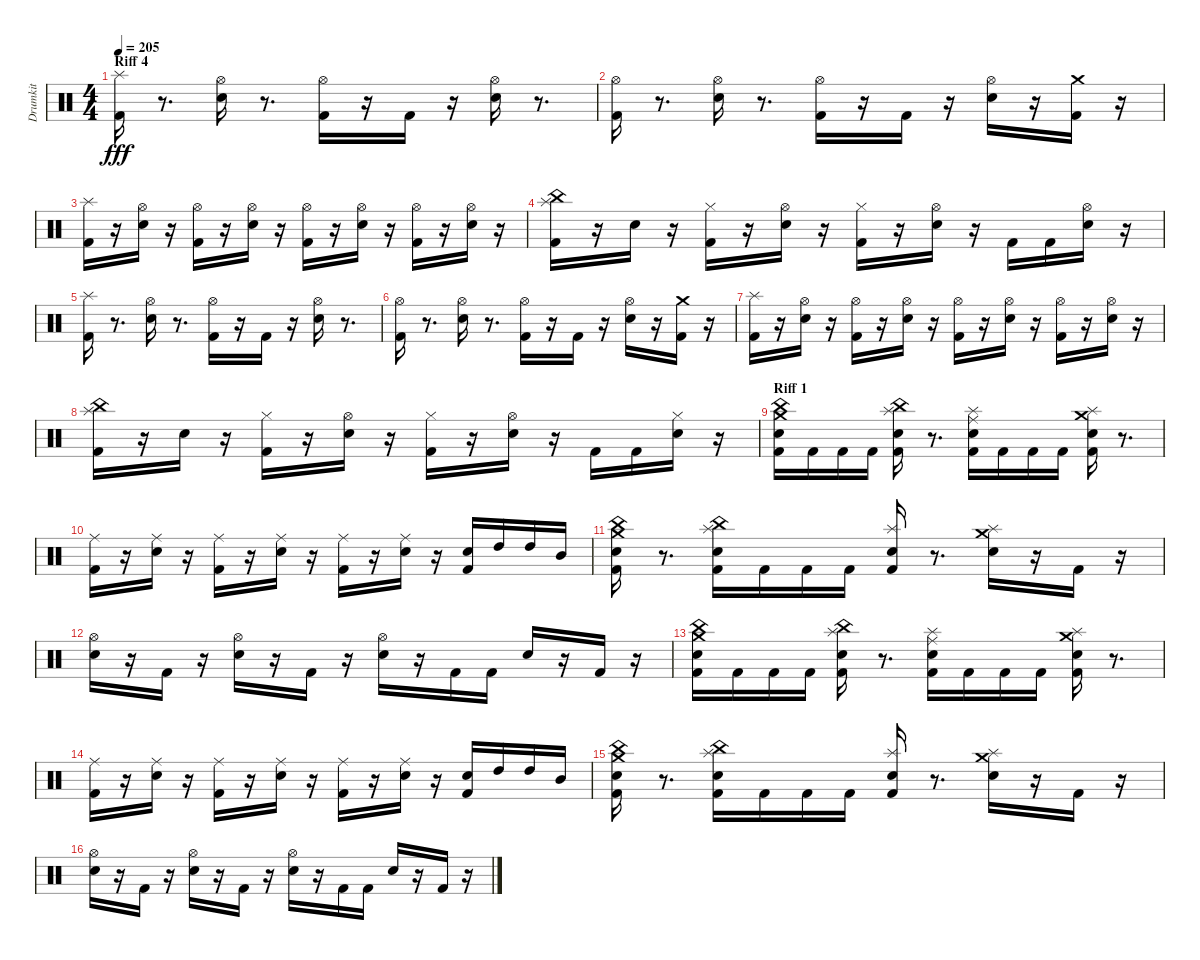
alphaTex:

\track ("Drumkit" "Drumkit") {instrument percussion}
\staff {score}
\articulation defaults
\ts (4 4)
\section ("" "Riff 4")
\tempo 205
\clef neutral
\ks c
("Kick (hit) 2" "Splash (hit)").16{dy fff} r.8{d} ("Snare (hit) 2" "Hi-Hat (open)").16 r.8{d} ("Kick (hit) 2" "Hi-Hat (open)").16 r.16 "Kick (hit) 2".16 r.16 ("Snare (hit) 2" "Hi-Hat (open)").16 r.8{d} |
("Kick (hit) 2" "Hi-Hat (open)").16 r.8{d} ("Snare (hit) 2" "Hi-Hat (open)").16 r.8{d} ("Kick (hit) 2" "Hi-Hat (open)").16 r.16 "Kick (hit) 2".16 r.16 ("Snare (hit) 2" "Hi-Hat (open)").16 r.16 ("Kick (hit) 2" "Crash medium (hit)").16 r.16 |
("Kick (hit) 2" "Splash (hit)").16 r.16 ("Snare (hit) 2" "Hi-Hat (open)").16 r.16 ("Kick (hit) 2" "Hi-Hat (open)").16 r.16 ("Snare (hit) 2" "Hi-Hat (open)").16 r.16 ("Kick (hit) 2" "Hi-Hat (open)").16 r.16 ("Snare (hit) 2" "Hi-Hat (open)").16 r.16 ("Kick (hit) 2" "Hi-Hat (open)").16 r.16 ("Snare (hit) 2" "Hi-Hat (open)").16 r.16 |
("Kick (hit) 2" "Splash (hit)" "China (hit)").16 r.16 "Snare (hit) 2".16 r.16 ("Kick (hit) 2" "Hi-Hat (closed)").16 r.16 ("Snare (hit) 2" "Hi-Hat (open)").16 r.16 ("Kick (hit) 2" "Hi-Hat (closed)").16 r.16 ("Snare (hit) 2" "Hi-Hat (open)").16 r.16 "Kick (hit) 2".16 "Kick (hit) 2".16 ("Snare (hit) 2" "Hi-Hat (open)").16 r.16 |
("Kick (hit) 2" "Splash (hit)").16 r.8{d} ("Snare (hit) 2" "Hi-Hat (open)").16 r.8{d} ("Kick (hit) 2" "Hi-Hat (open)").16 r.16 "Kick (hit) 2".16 r.16 ("Snare (hit) 2" "Hi-Hat (open)").16 r.8{d} |
("Kick (hit) 2" "Hi-Hat (open)").16 r.8{d} ("Snare (hit) 2" "Hi-Hat (open)").16 r.8{d} ("Kick (hit) 2" "Hi-Hat (open)").16 r.16 "Kick (hit) 2".16 r.16 ("Snare (hit) 2" "Hi-Hat (open)").16 r.16 ("Kick (hit) 2" "Crash medium (hit)").16 r.16 |
("Kick (hit) 2" "Splash (hit)").16 r.16 ("Snare (hit) 2" "Hi-Hat (open)").16 r.16 ("Kick (hit) 2" "Hi-Hat (open)").16 r.16 ("Snare (hit) 2" "Hi-Hat (open)").16 r.16 ("Kick (hit) 2" "Hi-Hat (open)").16 r.16 ("Snare (hit) 2" "Hi-Hat (open)").16 r.16 ("Kick (hit) 2" "Hi-Hat (open)").16 r.16 ("Snare (hit) 2" "Hi-Hat (open)").16 r.16 |
("Kick (hit) 2" "Splash (hit)" "China (hit)").16 r.16 "Snare (hit) 2".16 r.16 ("Kick (hit) 2" "Hi-Hat (closed)").16 r.16 ("Snare (hit) 2" "Hi-Hat (open)").16 r.16 ("Kick (hit) 2" "Hi-Hat (closed)").16 r.16 ("Snare (hit) 2" "Hi-Hat (open)").16 r.16 "Kick (hit) 2".16 "Kick (hit) 2".16 ("Snare (hit) 2" "Hi-Hat (closed)").16 r.16 |
\section ("" "Riff 1")
("Kick (hit) 2" "Snare (hit) 2" "Crash medium (hit)" "China (hit)").16 "Kick (hit) 2".16 "Kick (hit) 2".16 "Kick (hit) 2".16 ("Kick (hit) 2" "Snare (hit) 2" "Splash (hit)" "China (hit)").16 r.8{d} ("Kick (hit) 2" "Snare (hit) 2" "Ride (middle)" "Splash (hit)").16 "Kick (hit) 2".16 "Kick (hit) 2".16 "Kick (hit) 2".16 ("Kick (hit) 2" "Snare (hit) 2" "Splash (hit)" "Crash medium (hit)").16 r.8{d} |
("Kick (hit) 2" "Ride (middle)").16 r.16 ("Snare (hit) 2" "Ride (middle)").16 r.16 ("Kick (hit) 2" "Ride (middle)").16 r.16 ("Snare (hit) 2" "Ride (middle)").16 r.16 ("Kick (hit) 2" "Ride (middle)").16 r.16 ("Snare (hit) 2" "Ride (middle)").16 r.16 ("Kick (hit) 2" "Snare (hit) 2").16 "High Tom (hit)".16 "High Tom (hit)".16 "Mid Tom (hit)".16 |
("Kick (hit) 2" "Snare (hit) 2" "Crash medium (hit)" "China (hit)").16 r.8{d} ("Kick (hit) 2" "Snare (hit) 2" "Splash (hit)" "China (hit)").16 "Kick (hit) 2".16 "Kick (hit) 2".16 "Kick (hit) 2".16 ("Kick (hit) 2" "Snare (hit) 2" "Splash (hit)").16 r.8{d} ("Snare (hit) 2" "Splash (hit)" "Crash medium (hit)").16 r.16 "Kick (hit) 2".16 r.16 |
("Snare (hit) 2" "Hi-Hat (open)").16 r.16 "Kick (hit) 2".16 r.16 ("Snare (hit) 2" "Hi-Hat (open)").16 r.16 "Kick (hit) 2".16 r.16 ("Snare (hit) 2" "Hi-Hat (open)").16 r.16 "Kick (hit) 2".16 "Kick (hit) 2".16 "Snare (hit) 2".16 r.16 "Kick (hit) 2".16 r.16 |
("Kick (hit) 2" "Snare (hit) 2" "Crash medium (hit)" "China (hit)").16 "Kick (hit) 2".16 "Kick (hit) 2".16 "Kick (hit) 2".16 ("Kick (hit) 2" "Snare (hit) 2" "Splash (hit)" "China (hit)").16 r.8{d} ("Kick (hit) 2" "Snare (hit) 2" "Ride (middle)" "Splash (hit)").16 "Kick (hit) 2".16 "Kick (hit) 2".16 "Kick (hit) 2".16 ("Kick (hit) 2" "Snare (hit) 2" "Splash (hit)" "Crash medium (hit)").16 r.8{d} |
("Kick (hit) 2" "Ride (middle)").16 r.16 ("Snare (hit) 2" "Ride (middle)").16 r.16 ("Kick (hit) 2" "Ride (middle)").16 r.16 ("Snare (hit) 2" "Ride (middle)").16 r.16 ("Kick (hit) 2" "Ride (middle)").16 r.16 ("Snare (hit) 2" "Ride (middle)").16 r.16 ("Kick (hit) 2" "Snare (hit) 2").16 "High Tom (hit)".16 "High Tom (hit)".16 "Mid Tom (hit)".16 |
("Kick (hit) 2" "Snare (hit) 2" "Crash medium (hit)" "China (hit)").16 r.8{d} ("Kick (hit) 2" "Snare (hit) 2" "Splash (hit)" "China (hit)").16 "Kick (hit) 2".16 "Kick (hit) 2".16 "Kick (hit) 2".16 ("Kick (hit) 2" "Snare (hit) 2" "Splash (hit)").16 r.8{d} ("Snare (hit) 2" "Splash (hit)" "Crash medium (hit)").16 r.16 "Kick (hit) 2".16 r.16 |
("Snare (hit) 2" "Hi-Hat (open)").16 r.16 "Kick (hit) 2".16 r.16 ("Snare (hit) 2" "Hi-Hat (open)").16 r.16 "Kick (hit) 2".16 r.16 ("Snare (hit) 2" "Hi-Hat (open)").16 r.16 "Kick (hit) 2".16 "Kick (hit) 2".16 "Snare (hit) 2".16 r.16 "Kick (hit) 2".16 r.16
